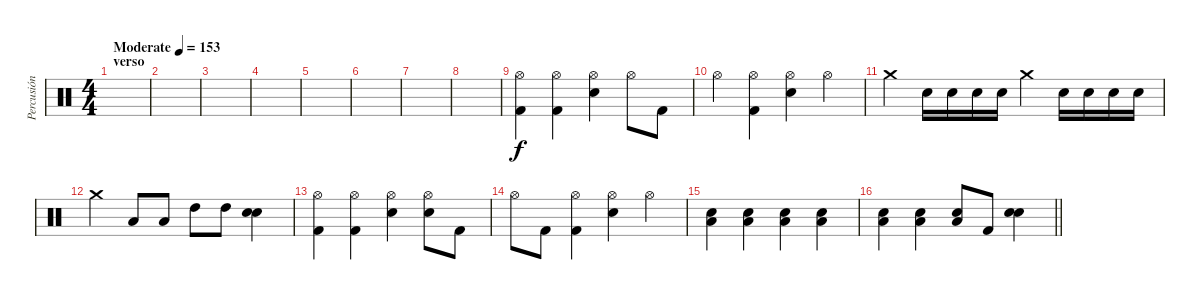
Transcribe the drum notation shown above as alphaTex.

\track ("Percusión" "Percusión") {instrument percussion}
\staff {score}
\articulation defaults
\ts (4 4)
\section ("" "verso")
\tempo (153 "Moderate")
\clef neutral
\ks c
|
|
|
|
|
|
|
|
("Hi-Hat (open)" "Kick (hit) 2").4 ("Hi-Hat (open)" "Kick (hit) 2").4 ("Hi-Hat (open)" "Electric Snare (hit)").4 "Hi-Hat (open)".8 "Kick (hit) 2".8 |
"Hi-Hat (open)".4 ("Hi-Hat (open)" "Kick (hit) 2").4 ("Hi-Hat (open)" "Electric Snare (hit)").4 "Hi-Hat (open)".4 |
"Crash medium (hit)".4 "Electric Snare (hit)".16 "Electric Snare (hit)".16 "Electric Snare (hit)".16 "Electric Snare (hit)".16 "Crash medium (hit)".4 "Electric Snare (hit)".16 "Electric Snare (hit)".16 "Electric Snare (hit)".16 "Electric Snare (hit)".16 |
"Crash medium (hit)".4 "Low Tom (hit)".8 "Low Tom (hit)".8 "High Tom (hit)".8 "High Tom (hit)".8 ("Electric Snare (hit)" "Electric Snare (hit)").4 |
("Hi-Hat (open)" "Kick (hit) 2").4 ("Hi-Hat (open)" "Kick (hit) 2").4 ("Hi-Hat (open)" "Electric Snare (hit)").4 ("Hi-Hat (open)" "Electric Snare (hit)").8 "Kick (hit) 2".8 |
"Hi-Hat (open)".8 "Kick (hit) 2".8 ("Hi-Hat (open)" "Kick (hit) 2").4 ("Hi-Hat (open)" "Electric Snare (hit)").4 "Hi-Hat (open)".4 |
("Low Floor Tom (hit)" "Electric Snare (hit)").4 ("Low Floor Tom (hit)" "Electric Snare (hit)").4 ("Low Floor Tom (hit)" "Electric Snare (hit)").4 ("Low Floor Tom (hit)" "Electric Snare (hit)").4 |
\barLineRight lightlight
("Low Floor Tom (hit)" "Electric Snare (hit)").4 ("Low Floor Tom (hit)" "Electric Snare (hit)").4 ("Low Tom (hit)" "Electric Snare (hit)").8 "Kick (hit) 2".8 ("Electric Snare (hit)" "Electric Snare (hit)").4
